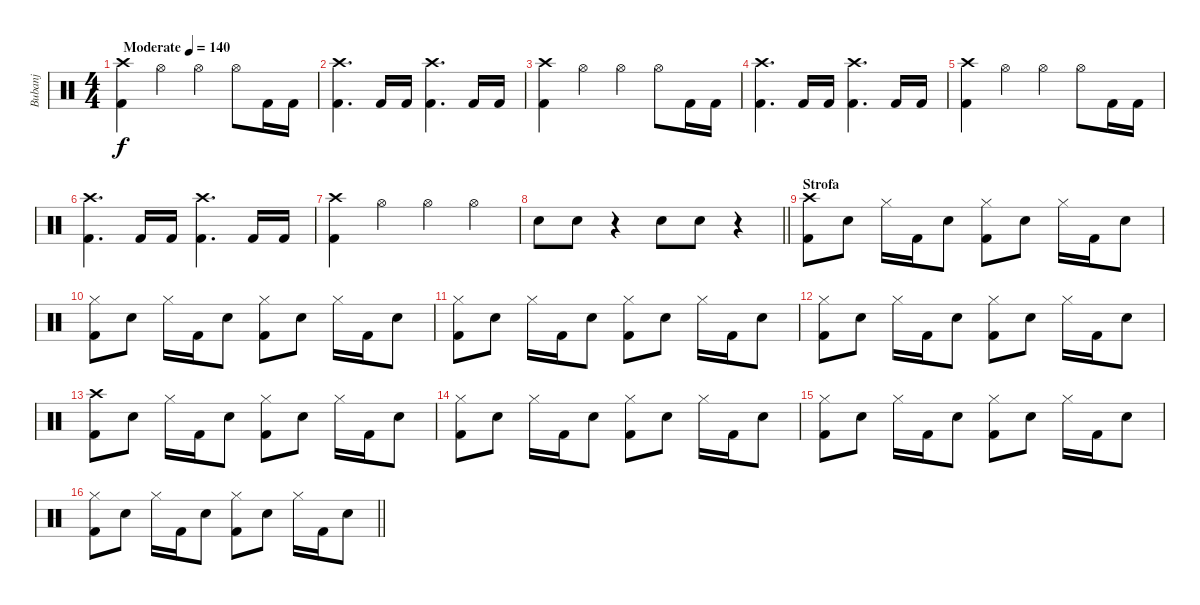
\track ("Bubanj" "Bubanj") {instrument percussion}
\staff {score}
\articulation defaults
\ts (4 4)
\tempo (140 "Moderate")
\clef neutral
\ks c
("Kick (hit) 2" "Crash high (hit)").4{dy f} "Hi-Hat (open)".4 "Hi-Hat (open)".4 "Hi-Hat (open)".8 "Kick (hit) 2".16 "Kick (hit) 2".16 |
("Kick (hit) 2" "Crash high (hit)").4{d} "Kick (hit) 2".16 "Kick (hit) 2".16 ("Kick (hit) 2" "Crash high (hit)").4{d} "Kick (hit) 2".16 "Kick (hit) 2".16 |
("Kick (hit) 2" "Crash high (hit)").4 "Hi-Hat (open)".4 "Hi-Hat (open)".4 "Hi-Hat (open)".8 "Kick (hit) 2".16 "Kick (hit) 2".16 |
("Kick (hit) 2" "Crash high (hit)").4{d} "Kick (hit) 2".16 "Kick (hit) 2".16 ("Kick (hit) 2" "Crash high (hit)").4{d} "Kick (hit) 2".16 "Kick (hit) 2".16 |
("Kick (hit) 2" "Crash high (hit)").4 "Hi-Hat (open)".4 "Hi-Hat (open)".4 "Hi-Hat (open)".8 "Kick (hit) 2".16 "Kick (hit) 2".16 |
("Kick (hit) 2" "Crash high (hit)").4{d} "Kick (hit) 2".16 "Kick (hit) 2".16 ("Kick (hit) 2" "Crash high (hit)").4{d} "Kick (hit) 2".16 "Kick (hit) 2".16 |
("Kick (hit) 2" "Crash high (hit)").4 "Hi-Hat (open)".4 "Hi-Hat (open)".4 "Hi-Hat (open)".4 |
\barLineRight lightlight "Snare (hit) 2".8 "Snare (hit) 2".8
r.4 "Snare (hit) 2".8 "Snare (hit) 2".8 r.4 |
\section ("" "Strofa")
("Kick (hit) 2" "Crash high (hit)").8 "Snare (hit) 2".8 "Hi-Hat (closed)".16 "Kick (hit) 2".16 "Snare (hit) 2".8 ("Kick (hit) 2" "Hi-Hat (closed)").8 "Snare (hit) 2".8 "Hi-Hat (closed)".16 "Kick (hit) 2".16 "Snare (hit) 2".8 |
("Kick (hit) 2" "Hi-Hat (closed)").8 "Snare (hit) 2".8 "Hi-Hat (closed)".16 "Kick (hit) 2".16 "Snare (hit) 2".8 ("Kick (hit) 2" "Hi-Hat (closed)").8 "Snare (hit) 2".8 "Hi-Hat (closed)".16 "Kick (hit) 2".16 "Snare (hit) 2".8 |
("Kick (hit) 2" "Hi-Hat (closed)").8 "Snare (hit) 2".8 "Hi-Hat (closed)".16 "Kick (hit) 2".16 "Snare (hit) 2".8 ("Kick (hit) 2" "Hi-Hat (closed)").8 "Snare (hit) 2".8 "Hi-Hat (closed)".16 "Kick (hit) 2".16 "Snare (hit) 2".8 |
("Kick (hit) 2" "Hi-Hat (closed)").8 "Snare (hit) 2".8 "Hi-Hat (closed)".16 "Kick (hit) 2".16 "Snare (hit) 2".8 ("Kick (hit) 2" "Hi-Hat (closed)").8 "Snare (hit) 2".8 "Hi-Hat (closed)".16 "Kick (hit) 2".16 "Snare (hit) 2".8 |
("Kick (hit) 2" "Crash high (hit)").8 "Snare (hit) 2".8 "Hi-Hat (closed)".16 "Kick (hit) 2".16 "Snare (hit) 2".8 ("Kick (hit) 2" "Hi-Hat (closed)").8 "Snare (hit) 2".8 "Hi-Hat (closed)".16 "Kick (hit) 2".16 "Snare (hit) 2".8 |
("Kick (hit) 2" "Hi-Hat (closed)").8 "Snare (hit) 2".8 "Hi-Hat (closed)".16 "Kick (hit) 2".16 "Snare (hit) 2".8 ("Kick (hit) 2" "Hi-Hat (closed)").8 "Snare (hit) 2".8 "Hi-Hat (closed)".16 "Kick (hit) 2".16 "Snare (hit) 2".8 |
("Kick (hit) 2" "Hi-Hat (closed)").8 "Snare (hit) 2".8 "Hi-Hat (closed)".16 "Kick (hit) 2".16 "Snare (hit) 2".8 ("Kick (hit) 2" "Hi-Hat (closed)").8 "Snare (hit) 2".8 "Hi-Hat (closed)".16 "Kick (hit) 2".16 "Snare (hit) 2".8 |
\barLineRight lightlight
("Kick (hit) 2" "Hi-Hat (closed)").8 "Snare (hit) 2".8 "Hi-Hat (closed)".16 "Kick (hit) 2".16 "Snare (hit) 2".8 ("Kick (hit) 2" "Hi-Hat (closed)").8 "Snare (hit) 2".8 "Hi-Hat (closed)".16 "Kick (hit) 2".16 "Snare (hit) 2".8
